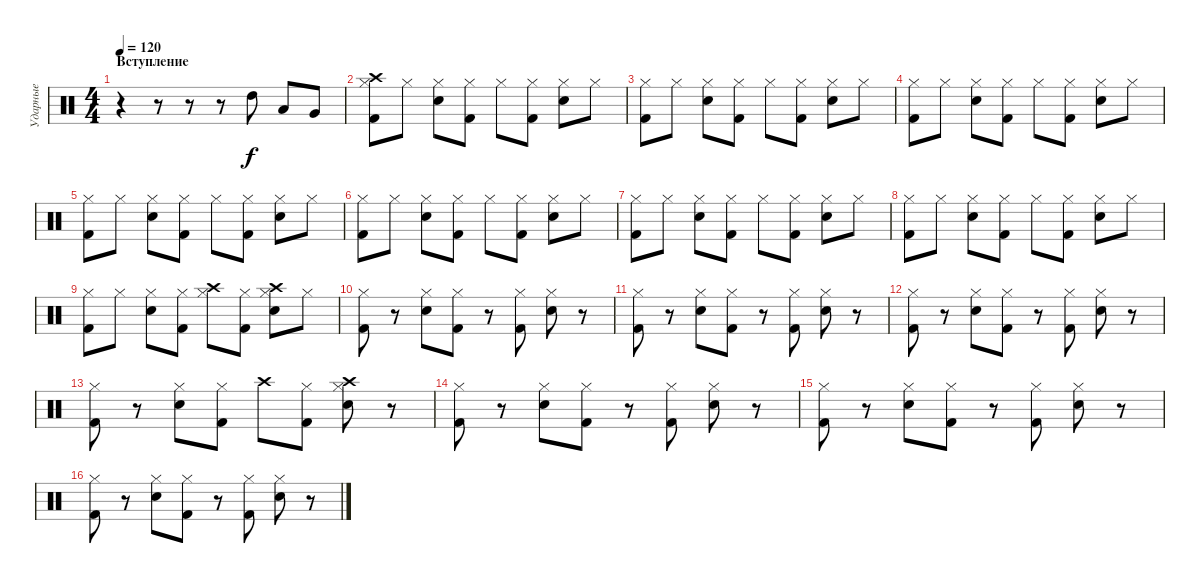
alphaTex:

\track ("Ударные" "Ударные") {instrument percussion}
\staff {score}
\articulation defaults
\ts (4 4)
\section ("" "Вступление")
\tempo 120
\clef neutral
\ks c
r.4{dy f} r.8 r.8 r.8 "High Tom (hit)".8 "Low Tom (hit)".8 "Very Low Tom (hit)".8 |
("Kick (hit) 2" "Hi-Hat (closed)" "Crash high (hit)").8 "Hi-Hat (closed)".8 ("Snare (hit) 2" "Hi-Hat (closed)").8 ("Kick (hit) 2" "Hi-Hat (closed)").8 "Hi-Hat (closed)".8 ("Kick (hit) 2" "Hi-Hat (closed)").8 ("Snare (hit) 2" "Hi-Hat (closed)").8 "Hi-Hat (closed)".8 |
("Kick (hit) 2" "Hi-Hat (closed)").8 "Hi-Hat (closed)".8 ("Snare (hit) 2" "Hi-Hat (closed)").8 ("Kick (hit) 2" "Hi-Hat (closed)").8 "Hi-Hat (closed)".8 ("Kick (hit) 2" "Hi-Hat (closed)").8 ("Snare (hit) 2" "Hi-Hat (closed)").8 "Hi-Hat (closed)".8 |
("Kick (hit) 2" "Hi-Hat (closed)").8 "Hi-Hat (closed)".8 ("Snare (hit) 2" "Hi-Hat (closed)").8 ("Kick (hit) 2" "Hi-Hat (closed)").8 "Hi-Hat (closed)".8 ("Kick (hit) 2" "Hi-Hat (closed)").8 ("Snare (hit) 2" "Hi-Hat (closed)").8 "Hi-Hat (closed)".8 |
("Kick (hit) 2" "Hi-Hat (closed)").8 "Hi-Hat (closed)".8 ("Snare (hit) 2" "Hi-Hat (closed)").8 ("Kick (hit) 2" "Hi-Hat (closed)").8 "Hi-Hat (closed)".8 ("Kick (hit) 2" "Hi-Hat (closed)").8 ("Snare (hit) 2" "Hi-Hat (closed)").8 "Hi-Hat (closed)".8 |
("Kick (hit) 2" "Hi-Hat (closed)").8 "Hi-Hat (closed)".8 ("Snare (hit) 2" "Hi-Hat (closed)").8 ("Kick (hit) 2" "Hi-Hat (closed)").8 "Hi-Hat (closed)".8 ("Kick (hit) 2" "Hi-Hat (closed)").8 ("Snare (hit) 2" "Hi-Hat (closed)").8 "Hi-Hat (closed)".8 |
("Kick (hit) 2" "Hi-Hat (closed)").8 "Hi-Hat (closed)".8 ("Snare (hit) 2" "Hi-Hat (closed)").8 ("Kick (hit) 2" "Hi-Hat (closed)").8 "Hi-Hat (closed)".8 ("Kick (hit) 2" "Hi-Hat (closed)").8 ("Snare (hit) 2" "Hi-Hat (closed)").8 "Hi-Hat (closed)".8 |
("Kick (hit) 2" "Hi-Hat (closed)").8 "Hi-Hat (closed)".8 ("Snare (hit) 2" "Hi-Hat (closed)").8 ("Kick (hit) 2" "Hi-Hat (closed)").8 "Hi-Hat (closed)".8 ("Kick (hit) 2" "Hi-Hat (closed)").8 ("Snare (hit) 2" "Hi-Hat (closed)").8 "Hi-Hat (closed)".8 |
("Kick (hit) 2" "Hi-Hat (closed)").8 "Hi-Hat (closed)".8 ("Snare (hit) 2" "Hi-Hat (closed)").8 ("Kick (hit) 2" "Hi-Hat (closed)").8 ("Hi-Hat (closed)" "Crash high (hit)").8 ("Kick (hit) 2" "Hi-Hat (closed)").8 ("Snare (hit) 2" "Hi-Hat (closed)" "Crash high (hit)").8 "Hi-Hat (closed)".8 |
("Kick (hit) 2" "Hi-Hat (closed)").8 r.8 ("Snare (hit) 2" "Hi-Hat (closed)").8 ("Kick (hit) 2" "Hi-Hat (closed)").8 r.8 ("Kick (hit) 2" "Hi-Hat (closed)").8 ("Snare (hit) 2" "Hi-Hat (closed)").8 r.8 |
("Kick (hit) 2" "Hi-Hat (closed)").8 r.8 ("Snare (hit) 2" "Hi-Hat (closed)").8 ("Kick (hit) 2" "Hi-Hat (closed)").8 r.8 ("Kick (hit) 2" "Hi-Hat (closed)").8 ("Snare (hit) 2" "Hi-Hat (closed)").8 r.8 |
("Kick (hit) 2" "Hi-Hat (closed)").8 r.8 ("Snare (hit) 2" "Hi-Hat (closed)").8 ("Kick (hit) 2" "Hi-Hat (closed)").8 r.8 ("Kick (hit) 2" "Hi-Hat (closed)").8 ("Snare (hit) 2" "Hi-Hat (closed)").8 r.8 |
("Kick (hit) 2" "Hi-Hat (closed)").8 r.8 ("Snare (hit) 2" "Hi-Hat (closed)").8 ("Kick (hit) 2" "Hi-Hat (closed)").8 "Crash high (hit)".8 ("Kick (hit) 2" "Hi-Hat (closed)").8 ("Snare (hit) 2" "Hi-Hat (closed)" "Crash high (hit)").8 r.8 |
("Kick (hit) 2" "Hi-Hat (closed)").8 r.8 ("Snare (hit) 2" "Hi-Hat (closed)").8 ("Kick (hit) 2" "Hi-Hat (closed)").8 r.8 ("Kick (hit) 2" "Hi-Hat (closed)").8 ("Snare (hit) 2" "Hi-Hat (closed)").8 r.8 |
("Kick (hit) 2" "Hi-Hat (closed)").8 r.8 ("Snare (hit) 2" "Hi-Hat (closed)").8 ("Kick (hit) 2" "Hi-Hat (closed)").8 r.8 ("Kick (hit) 2" "Hi-Hat (closed)").8 ("Snare (hit) 2" "Hi-Hat (closed)").8 r.8 |
("Kick (hit) 2" "Hi-Hat (closed)").8 r.8 ("Snare (hit) 2" "Hi-Hat (closed)").8 ("Kick (hit) 2" "Hi-Hat (closed)").8 r.8 ("Kick (hit) 2" "Hi-Hat (closed)").8 ("Snare (hit) 2" "Hi-Hat (closed)").8 r.8
